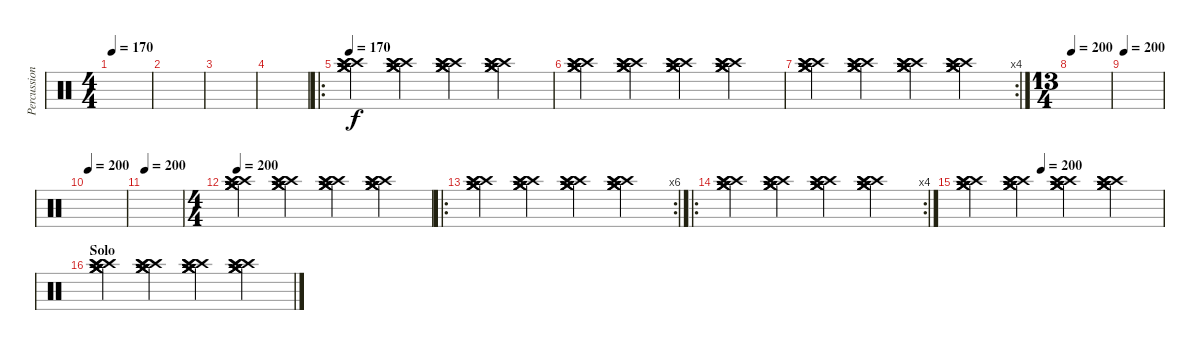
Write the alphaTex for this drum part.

\track ("Percussion" "Percussion") {instrument percussion}
\staff {score}
\articulation defaults
\ts (4 4)
\tempo 170
\clef neutral
\ks c
|
|
|
|
\ro
\tempo 170
("Crash high (hit)" "Crash high (hit)" "Crash high (hit)" "Crash medium (hit)" "Crash medium (hit)" "Crash medium (hit)").4{dy f} ("Crash high (hit)" "Crash high (hit)" "Crash high (hit)" "Crash medium (hit)" "Crash medium (hit)" "Crash medium (hit)").4 ("Crash high (hit)" "Crash high (hit)" "Crash high (hit)" "Crash medium (hit)" "Crash medium (hit)" "Crash medium (hit)").4 ("Crash high (hit)" "Crash high (hit)" "Crash high (hit)" "Crash medium (hit)" "Crash medium (hit)" "Crash medium (hit)").4 |
("Crash high (hit)" "Crash high (hit)" "Crash high (hit)" "Crash medium (hit)" "Crash medium (hit)" "Crash medium (hit)").4 ("Crash high (hit)" "Crash high (hit)" "Crash high (hit)" "Crash medium (hit)" "Crash medium (hit)" "Crash medium (hit)").4 ("Crash high (hit)" "Crash high (hit)" "Crash high (hit)" "Crash medium (hit)" "Crash medium (hit)" "Crash medium (hit)").4 ("Crash high (hit)" "Crash high (hit)" "Crash high (hit)" "Crash medium (hit)" "Crash medium (hit)" "Crash medium (hit)").4 |
\rc 4
("Crash high (hit)" "Crash high (hit)" "Crash high (hit)" "Crash medium (hit)" "Crash medium (hit)" "Crash medium (hit)").4 ("Crash high (hit)" "Crash high (hit)" "Crash high (hit)" "Crash medium (hit)" "Crash medium (hit)" "Crash medium (hit)").4 ("Crash high (hit)" "Crash high (hit)" "Crash high (hit)" "Crash medium (hit)" "Crash medium (hit)" "Crash medium (hit)").4 ("Crash high (hit)" "Crash high (hit)" "Crash high (hit)" "Crash medium (hit)" "Crash medium (hit)" "Crash medium (hit)").4 |
\ts (13 4)
\tempo 200
|
\tempo 200
|
\tempo 200
|
\tempo 200
|
\ts (4 4)
\tempo 200
("Crash high (hit)" "Crash high (hit)" "Crash high (hit)" "Crash medium (hit)" "Crash medium (hit)" "Crash medium (hit)").4 ("Crash high (hit)" "Crash high (hit)" "Crash high (hit)" "Crash medium (hit)" "Crash medium (hit)" "Crash medium (hit)").4 ("Crash high (hit)" "Crash high (hit)" "Crash high (hit)" "Crash medium (hit)" "Crash medium (hit)" "Crash medium (hit)").4 ("Crash high (hit)" "Crash high (hit)" "Crash high (hit)" "Crash medium (hit)" "Crash medium (hit)" "Crash medium (hit)").4 |
\ro
\rc 6
("Crash high (hit)" "Crash high (hit)" "Crash high (hit)" "Crash medium (hit)" "Crash medium (hit)" "Crash medium (hit)").4 ("Crash high (hit)" "Crash high (hit)" "Crash high (hit)" "Crash medium (hit)" "Crash medium (hit)" "Crash medium (hit)").4 ("Crash high (hit)" "Crash high (hit)" "Crash high (hit)" "Crash medium (hit)" "Crash medium (hit)" "Crash medium (hit)").4 ("Crash high (hit)" "Crash high (hit)" "Crash high (hit)" "Crash medium (hit)" "Crash medium (hit)" "Crash medium (hit)").4 |
\ro
\rc 4
("Crash high (hit)" "Crash high (hit)" "Crash high (hit)" "Crash medium (hit)" "Crash medium (hit)" "Crash medium (hit)").4 ("Crash high (hit)" "Crash high (hit)" "Crash high (hit)" "Crash medium (hit)" "Crash medium (hit)" "Crash medium (hit)").4 ("Crash high (hit)" "Crash high (hit)" "Crash high (hit)" "Crash medium (hit)" "Crash medium (hit)" "Crash medium (hit)").4 ("Crash high (hit)" "Crash high (hit)" "Crash high (hit)" "Crash medium (hit)" "Crash medium (hit)" "Crash medium (hit)").4 |
\tempo (200 0.375)
("Crash high (hit)" "Crash high (hit)" "Crash high (hit)" "Crash medium (hit)" "Crash medium (hit)" "Crash medium (hit)").4 ("Crash high (hit)" "Crash high (hit)" "Crash high (hit)" "Crash medium (hit)" "Crash medium (hit)" "Crash medium (hit)").4 ("Crash high (hit)" "Crash high (hit)" "Crash high (hit)" "Crash medium (hit)" "Crash medium (hit)" "Crash medium (hit)").4 ("Crash high (hit)" "Crash high (hit)" "Crash high (hit)" "Crash medium (hit)" "Crash medium (hit)" "Crash medium (hit)").4 |
\section ("" "Solo")
("Crash high (hit)" "Crash high (hit)" "Crash high (hit)" "Crash medium (hit)" "Crash medium (hit)" "Crash medium (hit)").4 ("Crash high (hit)" "Crash high (hit)" "Crash high (hit)" "Crash medium (hit)" "Crash medium (hit)" "Crash medium (hit)").4 ("Crash high (hit)" "Crash high (hit)" "Crash high (hit)" "Crash medium (hit)" "Crash medium (hit)" "Crash medium (hit)").4 ("Crash high (hit)" "Crash high (hit)" "Crash high (hit)" "Crash medium (hit)" "Crash medium (hit)" "Crash medium (hit)").4
